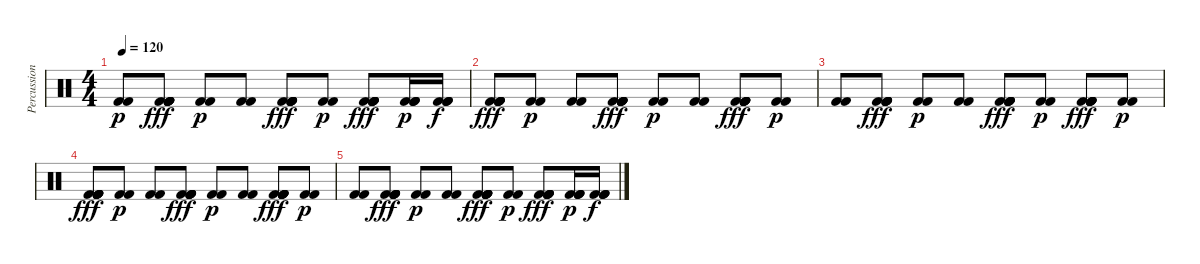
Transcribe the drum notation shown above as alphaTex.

\track ("Percussions" "Percussion") {instrument percussion}
\staff {score}
\articulation defaults
\ts (4 4)
\tempo 120
\clef neutral
\ks c
("Kick (hit) 2" "Kick (hit) 2").8{dy p} ("Kick (hit) 2" "Kick (hit) 2" "Kick (hit) 2" "Kick (hit) 2" "Kick (hit) 2" "Kick (hit) 2").8{dy fff} ("Kick (hit) 2" "Kick (hit) 2").8{dy p} ("Kick (hit) 2" "Kick (hit) 2").8 ("Kick (hit) 2" "Kick (hit) 2" "Kick (hit) 2" "Kick (hit) 2" "Kick (hit) 2" "Kick (hit) 2").8{dy fff} ("Kick (hit) 2" "Kick (hit) 2").8{dy p} ("Kick (hit) 2" "Kick (hit) 2" "Kick (hit) 2" "Kick (hit) 2" "Kick (hit) 2" "Kick (hit) 2").8{dy fff} ("Kick (hit) 2" "Kick (hit) 2" "Kick (hit) 2" "Kick (hit) 2").16{dy p} ("Kick (hit) 2" "Kick (hit) 2" "Kick (hit) 2" "Kick (hit) 2").16{dy f} |
("Kick (hit) 2" "Kick (hit) 2" "Kick (hit) 2" "Kick (hit) 2" "Kick (hit) 2" "Kick (hit) 2").8{dy fff} ("Kick (hit) 2" "Kick (hit) 2").8{dy p} ("Kick (hit) 2" "Kick (hit) 2").8 ("Kick (hit) 2" "Kick (hit) 2" "Kick (hit) 2" "Kick (hit) 2" "Kick (hit) 2" "Kick (hit) 2").8{dy fff} ("Kick (hit) 2" "Kick (hit) 2").8{dy p} ("Kick (hit) 2" "Kick (hit) 2").8 ("Kick (hit) 2" "Kick (hit) 2" "Kick (hit) 2" "Kick (hit) 2" "Kick (hit) 2" "Kick (hit) 2").8{dy fff} ("Kick (hit) 2" "Kick (hit) 2").8{dy p} |
("Kick (hit) 2" "Kick (hit) 2").8 ("Kick (hit) 2" "Kick (hit) 2" "Kick (hit) 2" "Kick (hit) 2" "Kick (hit) 2" "Kick (hit) 2").8{dy fff} ("Kick (hit) 2" "Kick (hit) 2").8{dy p} ("Kick (hit) 2" "Kick (hit) 2").8 ("Kick (hit) 2" "Kick (hit) 2" "Kick (hit) 2" "Kick (hit) 2" "Kick (hit) 2" "Kick (hit) 2").8{dy fff} ("Kick (hit) 2" "Kick (hit) 2").8{dy p} ("Kick (hit) 2" "Kick (hit) 2" "Kick (hit) 2" "Kick (hit) 2" "Kick (hit) 2" "Kick (hit) 2").8{dy fff} ("Kick (hit) 2" "Kick (hit) 2").8{dy p} |
("Kick (hit) 2" "Kick (hit) 2" "Kick (hit) 2" "Kick (hit) 2" "Kick (hit) 2" "Kick (hit) 2").8{dy fff} ("Kick (hit) 2" "Kick (hit) 2").8{dy p} ("Kick (hit) 2" "Kick (hit) 2").8 ("Kick (hit) 2" "Kick (hit) 2" "Kick (hit) 2" "Kick (hit) 2" "Kick (hit) 2" "Kick (hit) 2").8{dy fff} ("Kick (hit) 2" "Kick (hit) 2").8{dy p} ("Kick (hit) 2" "Kick (hit) 2").8 ("Kick (hit) 2" "Kick (hit) 2" "Kick (hit) 2" "Kick (hit) 2" "Kick (hit) 2" "Kick (hit) 2").8{dy fff} ("Kick (hit) 2" "Kick (hit) 2").8{dy p} |
("Kick (hit) 2" "Kick (hit) 2").8 ("Kick (hit) 2" "Kick (hit) 2" "Kick (hit) 2" "Kick (hit) 2" "Kick (hit) 2" "Kick (hit) 2").8{dy fff} ("Kick (hit) 2" "Kick (hit) 2").8{dy p} ("Kick (hit) 2" "Kick (hit) 2").8 ("Kick (hit) 2" "Kick (hit) 2" "Kick (hit) 2" "Kick (hit) 2" "Kick (hit) 2" "Kick (hit) 2").8{dy fff} ("Kick (hit) 2" "Kick (hit) 2").8{dy p} ("Kick (hit) 2" "Kick (hit) 2" "Kick (hit) 2" "Kick (hit) 2" "Kick (hit) 2" "Kick (hit) 2").8{dy fff} ("Kick (hit) 2" "Kick (hit) 2" "Kick (hit) 2" "Kick (hit) 2").16{dy p} ("Kick (hit) 2" "Kick (hit) 2" "Kick (hit) 2" "Kick (hit) 2").16{dy f}
